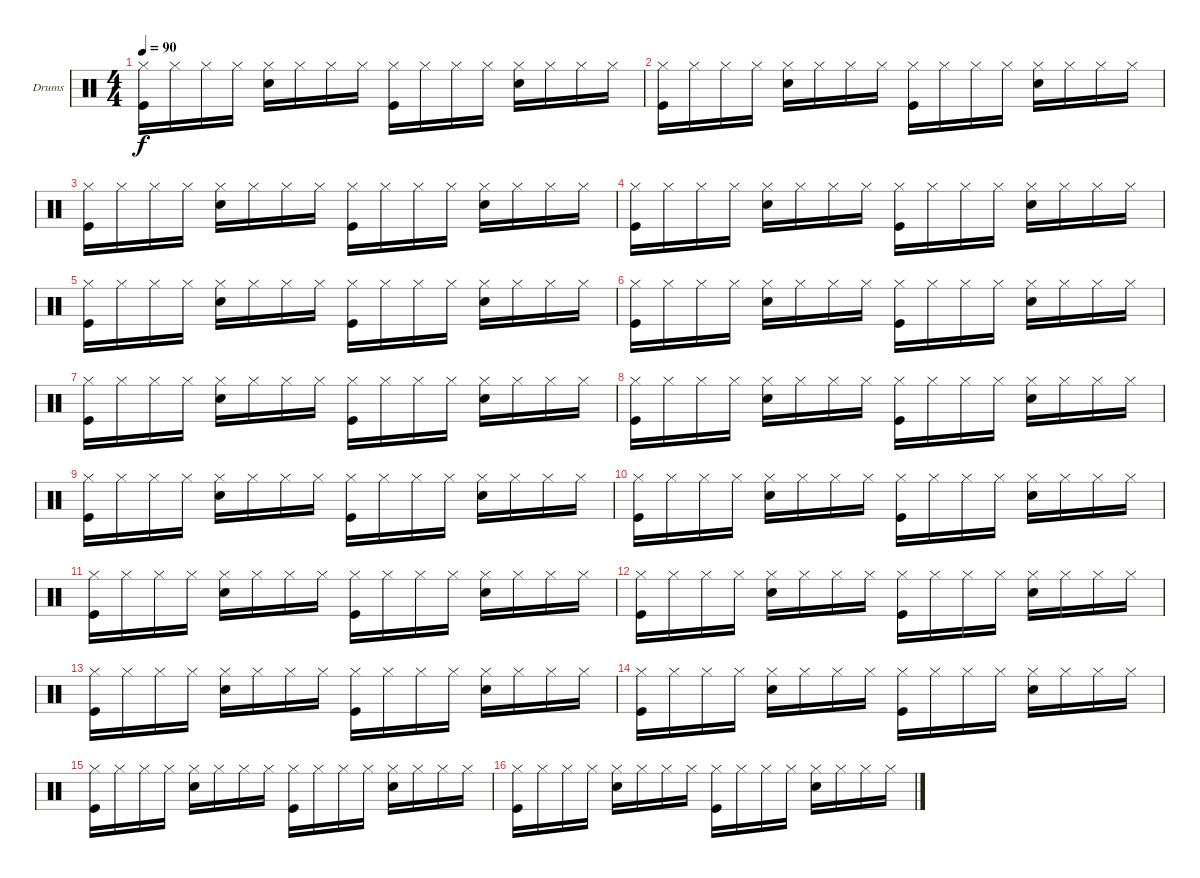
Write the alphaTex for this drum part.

\defaultSystemsLayout 4
\bracketExtendMode groupsimilarinstruments
\firstSystemTrackNameOrientation horizontal
\otherSystemsTrackNameOrientation horizontal
\track ("Drumkit" "Drums") {instrument percussion}
\staff {score}
\articulation defaults
\ts (4 4)
\tempo 90
\clef neutral
\scale
0.333333
\ks c
("Kick (hit)" "Hi-Hat (closed)").16{dy f} "Hi-Hat (closed)".16 "Hi-Hat (closed)".16 "Hi-Hat (closed)".16 ("Hi-Hat (closed)" "Snare (hit) 2").16 "Hi-Hat (closed)".16 "Hi-Hat (closed)".16 "Hi-Hat (closed)".16 ("Hi-Hat (closed)" "Kick (hit)").16 "Hi-Hat (closed)".16 "Hi-Hat (closed)".16 "Hi-Hat (closed)".16 ("Snare (hit) 2" "Hi-Hat (closed)").16 "Hi-Hat (closed)".16 "Hi-Hat (closed)".16 "Hi-Hat (closed)".16 |
\scale
0.333333 ("Hi-Hat (closed)" "Kick (hit)").16 "Hi-Hat (closed)".16 "Hi-Hat (closed)".16 "Hi-Hat (closed)".16 ("Hi-Hat (closed)" "Snare (hit) 2").16 "Hi-Hat (closed)".16 "Hi-Hat (closed)".16 "Hi-Hat (closed)".16 ("Kick (hit)" "Hi-Hat (closed)").16 "Hi-Hat (closed)".16 "Hi-Hat (closed)".16 "Hi-Hat (closed)".16 ("Hi-Hat (closed)" "Snare (hit) 2").16 "Hi-Hat (closed)".16 "Hi-Hat (closed)".16 "Hi-Hat (closed)".16 |
\scale
0.333333 ("Hi-Hat (closed)" "Kick (hit)").16 "Hi-Hat (closed)".16 "Hi-Hat (closed)".16 "Hi-Hat (closed)".16 ("Snare (hit) 2" "Hi-Hat (closed)").16 "Hi-Hat (closed)".16 "Hi-Hat (closed)".16 "Hi-Hat (closed)".16 ("Hi-Hat (closed)" "Kick (hit)").16 "Hi-Hat (closed)".16 "Hi-Hat (closed)".16 "Hi-Hat (closed)".16 ("Hi-Hat (closed)" "Snare (hit) 2").16 "Hi-Hat (closed)".16 "Hi-Hat (closed)".16 "Hi-Hat (closed)".16 |
\scale
0.333333 ("Kick (hit)" "Hi-Hat (closed)").16 "Hi-Hat (closed)".16 "Hi-Hat (closed)".16 "Hi-Hat (closed)".16 ("Hi-Hat (closed)" "Snare (hit) 2").16 "Hi-Hat (closed)".16 "Hi-Hat (closed)".16 "Hi-Hat (closed)".16 ("Hi-Hat (closed)" "Kick (hit)").16 "Hi-Hat (closed)".16 "Hi-Hat (closed)".16 "Hi-Hat (closed)".16 ("Snare (hit) 2" "Hi-Hat (closed)").16 "Hi-Hat (closed)".16 "Hi-Hat (closed)".16 "Hi-Hat (closed)".16 |
\scale
0.333333 ("Hi-Hat (closed)" "Kick (hit)").16 "Hi-Hat (closed)".16 "Hi-Hat (closed)".16 "Hi-Hat (closed)".16 ("Hi-Hat (closed)" "Snare (hit) 2").16 "Hi-Hat (closed)".16 "Hi-Hat (closed)".16 "Hi-Hat (closed)".16 ("Kick (hit)" "Hi-Hat (closed)").16 "Hi-Hat (closed)".16 "Hi-Hat (closed)".16 "Hi-Hat (closed)".16 ("Hi-Hat (closed)" "Snare (hit) 2").16 "Hi-Hat (closed)".16 "Hi-Hat (closed)".16 "Hi-Hat (closed)".16 |
\scale
0.333333 ("Hi-Hat (closed)" "Kick (hit)").16 "Hi-Hat (closed)".16 "Hi-Hat (closed)".16 "Hi-Hat (closed)".16 ("Snare (hit) 2" "Hi-Hat (closed)").16 "Hi-Hat (closed)".16 "Hi-Hat (closed)".16 "Hi-Hat (closed)".16 ("Hi-Hat (closed)" "Kick (hit)").16 "Hi-Hat (closed)".16 "Hi-Hat (closed)".16 "Hi-Hat (closed)".16 ("Hi-Hat (closed)" "Snare (hit) 2").16 "Hi-Hat (closed)".16 "Hi-Hat (closed)".16 "Hi-Hat (closed)".16 |
\scale
0.333333 ("Kick (hit)" "Hi-Hat (closed)").16 "Hi-Hat (closed)".16 "Hi-Hat (closed)".16 "Hi-Hat (closed)".16 ("Hi-Hat (closed)" "Snare (hit) 2").16 "Hi-Hat (closed)".16 "Hi-Hat (closed)".16 "Hi-Hat (closed)".16 ("Hi-Hat (closed)" "Kick (hit)").16 "Hi-Hat (closed)".16 "Hi-Hat (closed)".16 "Hi-Hat (closed)".16 ("Snare (hit) 2" "Hi-Hat (closed)").16 "Hi-Hat (closed)".16 "Hi-Hat (closed)".16 "Hi-Hat (closed)".16 |
\scale
0.333333 ("Hi-Hat (closed)" "Kick (hit)").16 "Hi-Hat (closed)".16 "Hi-Hat (closed)".16 "Hi-Hat (closed)".16 ("Hi-Hat (closed)" "Snare (hit) 2").16 "Hi-Hat (closed)".16 "Hi-Hat (closed)".16 "Hi-Hat (closed)".16 ("Kick (hit)" "Hi-Hat (closed)").16 "Hi-Hat (closed)".16 "Hi-Hat (closed)".16 "Hi-Hat (closed)".16 ("Hi-Hat (closed)" "Snare (hit) 2").16 "Hi-Hat (closed)".16 "Hi-Hat (closed)".16 "Hi-Hat (closed)".16 |
\scale
0.333333 ("Hi-Hat (closed)" "Kick (hit)").16 "Hi-Hat (closed)".16 "Hi-Hat (closed)".16 "Hi-Hat (closed)".16 ("Snare (hit) 2" "Hi-Hat (closed)").16 "Hi-Hat (closed)".16 "Hi-Hat (closed)".16 "Hi-Hat (closed)".16 ("Hi-Hat (closed)" "Kick (hit)").16 "Hi-Hat (closed)".16 "Hi-Hat (closed)".16 "Hi-Hat (closed)".16 ("Hi-Hat (closed)" "Snare (hit) 2").16 "Hi-Hat (closed)".16 "Hi-Hat (closed)".16 "Hi-Hat (closed)".16 |
\scale
0.333333 ("Hi-Hat (closed)" "Kick (hit)").16 "Hi-Hat (closed)".16 "Hi-Hat (closed)".16 "Hi-Hat (closed)".16 ("Snare (hit) 2" "Hi-Hat (closed)").16 "Hi-Hat (closed)".16 "Hi-Hat (closed)".16 "Hi-Hat (closed)".16 ("Hi-Hat (closed)" "Kick (hit)").16 "Hi-Hat (closed)".16 "Hi-Hat (closed)".16 "Hi-Hat (closed)".16 ("Hi-Hat (closed)" "Snare (hit) 2").16 "Hi-Hat (closed)".16 "Hi-Hat (closed)".16 "Hi-Hat (closed)".16 |
\scale
0.333333 ("Kick (hit)" "Hi-Hat (closed)").16 "Hi-Hat (closed)".16 "Hi-Hat (closed)".16 "Hi-Hat (closed)".16 ("Hi-Hat (closed)" "Snare (hit) 2").16 "Hi-Hat (closed)".16 "Hi-Hat (closed)".16 "Hi-Hat (closed)".16 ("Hi-Hat (closed)" "Kick (hit)").16 "Hi-Hat (closed)".16 "Hi-Hat (closed)".16 "Hi-Hat (closed)".16 ("Snare (hit) 2" "Hi-Hat (closed)").16 "Hi-Hat (closed)".16 "Hi-Hat (closed)".16 "Hi-Hat (closed)".16 |
\scale
0.333333 ("Hi-Hat (closed)" "Kick (hit)").16 "Hi-Hat (closed)".16 "Hi-Hat (closed)".16 "Hi-Hat (closed)".16 ("Hi-Hat (closed)" "Snare (hit) 2").16 "Hi-Hat (closed)".16 "Hi-Hat (closed)".16 "Hi-Hat (closed)".16 ("Kick (hit)" "Hi-Hat (closed)").16 "Hi-Hat (closed)".16 "Hi-Hat (closed)".16 "Hi-Hat (closed)".16 ("Hi-Hat (closed)" "Snare (hit) 2").16 "Hi-Hat (closed)".16 "Hi-Hat (closed)".16 "Hi-Hat (closed)".16 |
\scale
0.333333 ("Hi-Hat (closed)" "Kick (hit)").16 "Hi-Hat (closed)".16 "Hi-Hat (closed)".16 "Hi-Hat (closed)".16 ("Snare (hit) 2" "Hi-Hat (closed)").16 "Hi-Hat (closed)".16 "Hi-Hat (closed)".16 "Hi-Hat (closed)".16 ("Hi-Hat (closed)" "Kick (hit)").16 "Hi-Hat (closed)".16 "Hi-Hat (closed)".16 "Hi-Hat (closed)".16 ("Hi-Hat (closed)" "Snare (hit) 2").16 "Hi-Hat (closed)".16 "Hi-Hat (closed)".16 "Hi-Hat (closed)".16 |
\scale
0.333333 ("Kick (hit)" "Hi-Hat (closed)").16 "Hi-Hat (closed)".16 "Hi-Hat (closed)".16 "Hi-Hat (closed)".16 ("Hi-Hat (closed)" "Snare (hit) 2").16 "Hi-Hat (closed)".16 "Hi-Hat (closed)".16 "Hi-Hat (closed)".16 ("Hi-Hat (closed)" "Kick (hit)").16 "Hi-Hat (closed)".16 "Hi-Hat (closed)".16 "Hi-Hat (closed)".16 ("Snare (hit) 2" "Hi-Hat (closed)").16 "Hi-Hat (closed)".16 "Hi-Hat (closed)".16 "Hi-Hat (closed)".16 |
\scale
0.333333 ("Hi-Hat (closed)" "Kick (hit)").16 "Hi-Hat (closed)".16 "Hi-Hat (closed)".16 "Hi-Hat (closed)".16 ("Hi-Hat (closed)" "Snare (hit) 2").16 "Hi-Hat (closed)".16 "Hi-Hat (closed)".16 "Hi-Hat (closed)".16 ("Kick (hit)" "Hi-Hat (closed)").16 "Hi-Hat (closed)".16 "Hi-Hat (closed)".16 "Hi-Hat (closed)".16 ("Hi-Hat (closed)" "Snare (hit) 2").16 "Hi-Hat (closed)".16 "Hi-Hat (closed)".16 "Hi-Hat (closed)".16 |
\scale
0.333333 ("Hi-Hat (closed)" "Kick (hit)").16 "Hi-Hat (closed)".16 "Hi-Hat (closed)".16 "Hi-Hat (closed)".16 ("Snare (hit) 2" "Hi-Hat (closed)").16 "Hi-Hat (closed)".16 "Hi-Hat (closed)".16 "Hi-Hat (closed)".16 ("Hi-Hat (closed)" "Kick (hit)").16 "Hi-Hat (closed)".16 "Hi-Hat (closed)".16 "Hi-Hat (closed)".16 ("Hi-Hat (closed)" "Snare (hit) 2").16 "Hi-Hat (closed)".16 "Hi-Hat (closed)".16 "Hi-Hat (closed)".16
